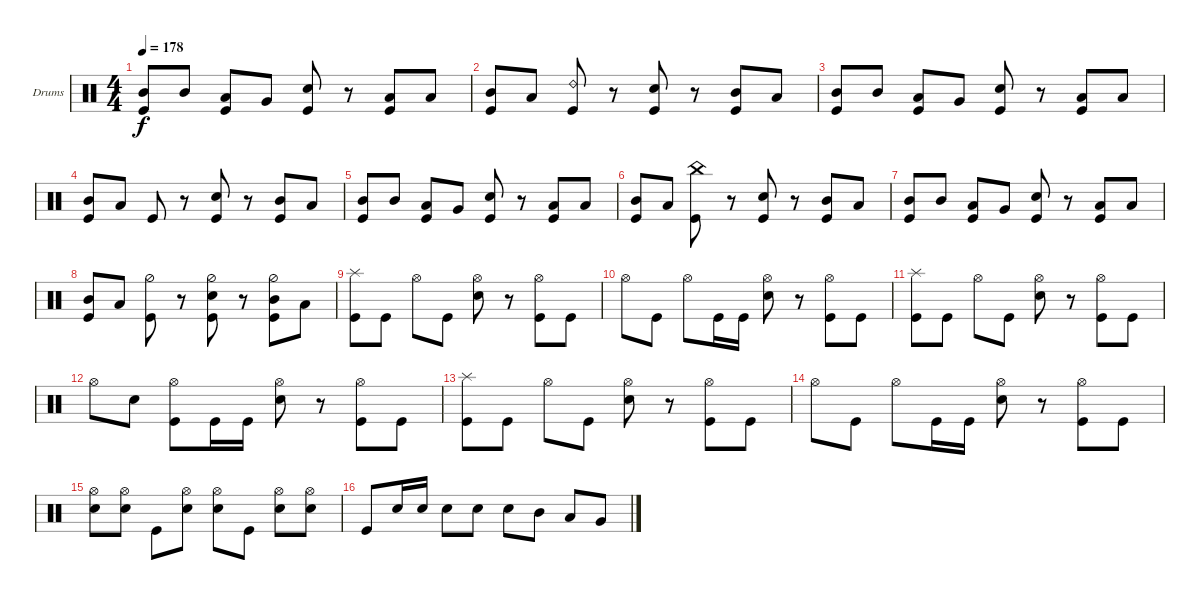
\bracketExtendMode groupsimilarinstruments
\firstSystemTrackNameOrientation horizontal
\otherSystemsTrackNameOrientation horizontal
\track ("Drums" "Drums") {instrument percussion}
\staff {score}
\articulation defaults
\ts (4 4)
\tempo 178
\clef neutral
\ks c
("Kick (hit)" "Mid Tom (hit)").8{dy f} "Mid Tom (hit)".8 ("Kick (hit)" "Low Tom (hit)").8 "Very Low Tom (hit)".8 ("Kick (hit)" "Snare (hit) 2").8 r.8 ("Kick (hit)" "Low Tom (hit)").8 "Low Tom (hit)".8 |
("Kick (hit)" "Mid Tom (hit)").8 "Low Tom (hit)".8 ("Kick (hit)" "Ride (bell) 2").8 r.8 ("Kick (hit)" "Snare (hit) 2").8 r.8 ("Kick (hit)" "Mid Tom (hit)").8 "Low Tom (hit)".8 |
("Kick (hit)" "Mid Tom (hit)").8 "Mid Tom (hit)".8 ("Kick (hit)" "Low Tom (hit)").8 "Very Low Tom (hit)".8 ("Kick (hit)" "Snare (hit) 2").8 r.8 ("Kick (hit)" "Low Tom (hit)").8 "Low Tom (hit)".8 |
("Kick (hit)" "Mid Tom (hit)").8 "Low Tom (hit)".8 "Kick (hit)".8 r.8 ("Kick (hit)" "Snare (hit) 2").8 r.8 ("Kick (hit)" "Mid Tom (hit)").8 "Low Tom (hit)".8 |
("Kick (hit)" "Mid Tom (hit)").8 "Mid Tom (hit)".8 ("Kick (hit)" "Low Tom (hit)").8 "Very Low Tom (hit)".8 ("Kick (hit)" "Snare (hit) 2").8 r.8 ("Kick (hit)" "Low Tom (hit)").8 "Low Tom (hit)".8 |
("Kick (hit)" "Mid Tom (hit)").8 "Low Tom (hit)".8 ("Kick (hit)" "China (hit)").8 r.8 ("Kick (hit)" "Snare (hit) 2").8 r.8 ("Kick (hit)" "Mid Tom (hit)").8 "Low Tom (hit)".8 |
("Kick (hit)" "Mid Tom (hit)").8 "Mid Tom (hit)".8 ("Kick (hit)" "Low Tom (hit)").8 "Very Low Tom (hit)".8 ("Kick (hit)" "Snare (hit) 2").8 r.8 ("Kick (hit)" "Low Tom (hit)").8 "Low Tom (hit)".8 |
("Kick (hit)" "Mid Tom (hit)").8 "Low Tom (hit)".8 ("Kick (hit)" "Hi-Hat (half)").8 r.8 ("Kick (hit)" "Snare (hit) 2" "Hi-Hat (half)").8 r.8 ("Kick (hit)" "Mid Tom (hit)" "Hi-Hat (half)").8 "Low Tom (hit)".8 |
("Kick (hit)" "Splash (hit)").8 "Kick (hit)".8 "Hi-Hat (open)".8 "Kick (hit)".8 ("Hi-Hat (open)" "Snare (hit) 2").8 r.8 ("Hi-Hat (open)" "Kick (hit)").8 "Kick (hit)".8 |
"Hi-Hat (open)".8 "Kick (hit)".8 "Hi-Hat (open)".8 "Kick (hit)".16 "Kick (hit)".16 ("Hi-Hat (open)" "Snare (hit) 2").8 r.8 ("Hi-Hat (open)" "Kick (hit)").8 "Kick (hit)".8 |
("Kick (hit)" "Splash (hit)").8 "Kick (hit)".8 "Hi-Hat (open)".8 "Kick (hit)".8 ("Hi-Hat (open)" "Snare (hit) 2").8 r.8 ("Hi-Hat (open)" "Kick (hit)").8 "Kick (hit)".8 |
"Hi-Hat (open)".8 "Snare (hit) 2".8 ("Hi-Hat (open)" "Kick (hit)").8 "Kick (hit)".16 "Kick (hit)".16 ("Hi-Hat (open)" "Snare (hit) 2").8 r.8 ("Hi-Hat (open)" "Kick (hit)").8 "Kick (hit)".8 |
("Kick (hit)" "Splash (hit)").8 "Kick (hit)".8 "Hi-Hat (open)".8 "Kick (hit)".8 ("Hi-Hat (open)" "Snare (hit) 2").8 r.8 ("Hi-Hat (open)" "Kick (hit)").8 "Kick (hit)".8 |
"Hi-Hat (open)".8 "Kick (hit)".8 "Hi-Hat (open)".8 "Kick (hit)".16 "Kick (hit)".16 ("Hi-Hat (open)" "Snare (hit) 2").8 r.8 ("Hi-Hat (open)" "Kick (hit)").8 "Kick (hit)".8 |
("Hi-Hat (open)" "Snare (hit) 2").8 ("Hi-Hat (open)" "Snare (hit) 2").8 "Kick (hit)".8 ("Hi-Hat (open)" "Snare (hit) 2").8 ("Hi-Hat (open)" "Snare (hit) 2").8 "Kick (hit)".8 ("Hi-Hat (open)" "Snare (hit) 2").8 ("Hi-Hat (open)" "Snare (hit) 2").8 |
"Kick (hit)".8 "Snare (hit) 2".16 "Snare (hit) 2".16 "Snare (hit) 2".8 "Snare (hit) 2".8 "Snare (hit) 2".8 "Mid Tom (hit)".8 "Low Tom (hit)".8 "Very Low Tom (hit)".8
